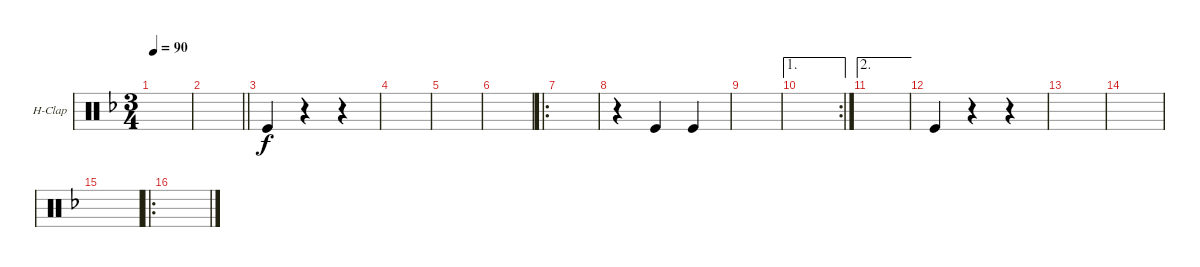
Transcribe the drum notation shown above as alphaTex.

\defaultSystemsLayout 4
\bracketExtendMode groupsimilarinstruments
\firstSystemTrackNameOrientation horizontal
\otherSystemsTrackNameOrientation horizontal
\track ("Hand Clap" "H-Clap") {instrument percussion}
\staff {score}
\articulation defaults
\ts (3 4)
\tempo 90
\clef neutral
\ks dminor
|
\barLineRight lightlight
|
"Kick (hit)".4 r.4 r.4 |
|
|
|
\ro
|
r.4 "Kick (hit)".4 "Kick (hit)".4 |
|
\ae 1
\rc 2
|
\ae 2
|
"Kick (hit)".4 r.4 r.4 |
|
|
|
\ro
